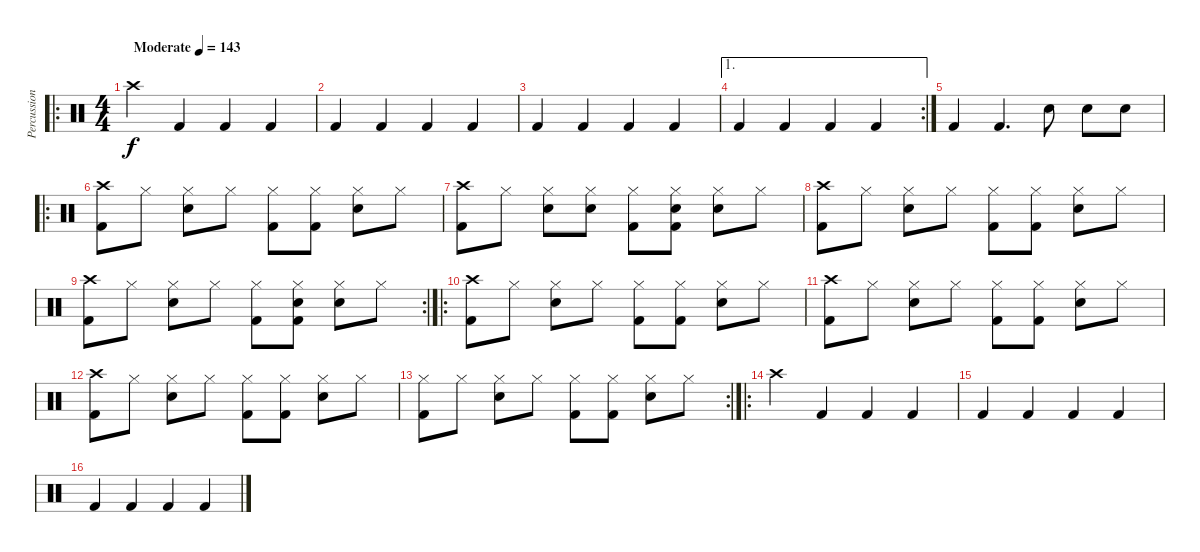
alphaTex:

\track ("Percussion" "Percussion") {instrument percussion}
\staff {score}
\articulation defaults
\ro
\ts (4 4)
\tempo (143 "Moderate")
\clef neutral
\ks c "Crash high (hit)".4{dy f} "Kick (hit) 2".4 "Kick (hit) 2".4 "Kick (hit) 2".4
|
"Kick (hit) 2".4 "Kick (hit) 2".4 "Kick (hit) 2".4 "Kick (hit) 2".4 |
"Kick (hit) 2".4 "Kick (hit) 2".4 "Kick (hit) 2".4 "Kick (hit) 2".4 |
\ae 1
\rc 2 "Kick (hit) 2".4 "Kick (hit) 2".4 "Kick (hit) 2".4 "Kick (hit) 2".4
|
"Kick (hit) 2".4 "Kick (hit) 2".4{d} "Snare (hit) 2".8 "Snare (hit) 2".8 "Snare (hit) 2".8 |
\ro
("Crash high (hit)" "Kick (hit) 2").8 "Hi-Hat (closed)".8 ("Hi-Hat (closed)" "Snare (hit) 2").8 "Hi-Hat (closed)".8 ("Hi-Hat (closed)" "Kick (hit) 2").8 ("Hi-Hat (closed)" "Kick (hit) 2").8 ("Hi-Hat (closed)" "Snare (hit) 2").8 "Hi-Hat (closed)".8 |
("Crash high (hit)" "Kick (hit) 2").8 "Hi-Hat (closed)".8 ("Hi-Hat (closed)" "Snare (hit) 2").8 ("Hi-Hat (closed)" "Snare (hit) 2").8 ("Hi-Hat (closed)" "Kick (hit) 2").8 ("Hi-Hat (closed)" "Snare (hit) 2" "Kick (hit) 2").8 ("Hi-Hat (closed)" "Snare (hit) 2").8 "Hi-Hat (closed)".8 |
("Crash high (hit)" "Kick (hit) 2").8 "Hi-Hat (closed)".8 ("Hi-Hat (closed)" "Snare (hit) 2").8 "Hi-Hat (closed)".8 ("Hi-Hat (closed)" "Kick (hit) 2").8 ("Hi-Hat (closed)" "Kick (hit) 2").8 ("Hi-Hat (closed)" "Snare (hit) 2").8 "Hi-Hat (closed)".8 |
\rc 2
("Crash high (hit)" "Kick (hit) 2").8 "Hi-Hat (closed)".8 ("Hi-Hat (closed)" "Snare (hit) 2").8 "Hi-Hat (closed)".8 ("Hi-Hat (closed)" "Kick (hit) 2").8 ("Hi-Hat (closed)" "Snare (hit) 2" "Kick (hit) 2").8 ("Hi-Hat (closed)" "Snare (hit) 2").8 "Hi-Hat (closed)".8 |
\ro
("Crash high (hit)" "Kick (hit) 2").8 "Hi-Hat (closed)".8 ("Hi-Hat (closed)" "Snare (hit) 2").8 "Hi-Hat (closed)".8 ("Hi-Hat (closed)" "Kick (hit) 2").8 ("Hi-Hat (closed)" "Kick (hit) 2").8 ("Hi-Hat (closed)" "Snare (hit) 2").8 "Hi-Hat (closed)".8 |
("Crash high (hit)" "Kick (hit) 2").8 "Hi-Hat (closed)".8 ("Hi-Hat (closed)" "Snare (hit) 2").8 "Hi-Hat (closed)".8 ("Hi-Hat (closed)" "Kick (hit) 2").8 ("Hi-Hat (closed)" "Kick (hit) 2").8 ("Hi-Hat (closed)" "Snare (hit) 2").8 "Hi-Hat (closed)".8 |
("Crash high (hit)" "Kick (hit) 2").8 "Hi-Hat (closed)".8 ("Hi-Hat (closed)" "Snare (hit) 2").8 "Hi-Hat (closed)".8 ("Hi-Hat (closed)" "Kick (hit) 2").8 ("Hi-Hat (closed)" "Kick (hit) 2").8 ("Hi-Hat (closed)" "Snare (hit) 2").8 "Hi-Hat (closed)".8 |
\rc 2
("Hi-Hat (closed)" "Kick (hit) 2").8 "Hi-Hat (closed)".8 ("Hi-Hat (closed)" "Snare (hit) 2").8 "Hi-Hat (closed)".8 ("Hi-Hat (closed)" "Kick (hit) 2").8 ("Hi-Hat (closed)" "Kick (hit) 2").8 ("Hi-Hat (closed)" "Snare (hit) 2").8 "Hi-Hat (closed)".8 |
\ro "Crash high (hit)".4 "Kick (hit) 2".4 "Kick (hit) 2".4 "Kick (hit) 2".4
|
"Kick (hit) 2".4 "Kick (hit) 2".4 "Kick (hit) 2".4 "Kick (hit) 2".4 |
"Kick (hit) 2".4 "Kick (hit) 2".4 "Kick (hit) 2".4 "Kick (hit) 2".4
